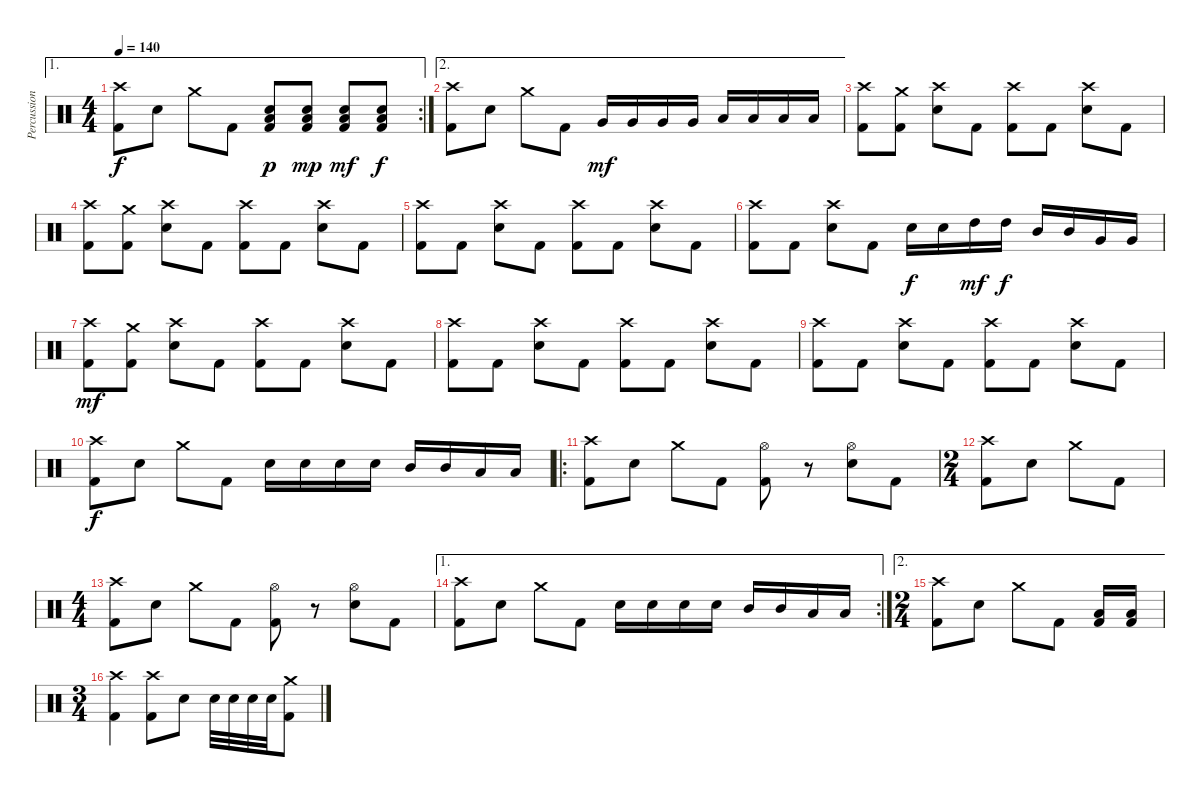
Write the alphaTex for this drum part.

\track ("Percussions" "Percussion") {instrument percussion}
\staff {score}
\articulation defaults
\ae 1
\rc 2
\ts (4 4)
\tempo 140
\clef neutral
\ks c
("Kick (hit) 2" "Crash high (hit)").8{dy f} "Electric Snare (hit)".8 "Crash medium (hit)".8 "Kick (hit) 2".8 ("Kick (hit) 2" "Electric Snare (hit)" "Low Floor Tom (hit)").8{dy p} ("Kick (hit) 2" "Electric Snare (hit)" "Low Floor Tom (hit)").8{dy mp} ("Kick (hit) 2" "Electric Snare (hit)" "Low Floor Tom (hit)").8{dy mf} ("Kick (hit) 2" "Electric Snare (hit)" "Low Floor Tom (hit)").8{dy f} |
\ae 2
("Kick (hit) 2" "Crash high (hit)").8 "Electric Snare (hit)".8 "Crash medium (hit)".8 "Kick (hit) 2".8 "Very Low Tom (hit)".16{dy mf} "Very Low Tom (hit)".16 "Very Low Tom (hit)".16 "Very Low Tom (hit)".16 "Low Floor Tom (hit)".16 "Low Floor Tom (hit)".16 "Low Floor Tom (hit)".16 "Low Floor Tom (hit)".16 |
("Kick (hit) 2" "Crash high (hit)").8 ("Kick (hit) 2" "Crash medium (hit)").8 ("Electric Snare (hit)" "Crash high (hit)").8 "Kick (hit) 2".8 ("Kick (hit) 2" "Crash high (hit)").8 "Kick (hit) 2".8 ("Electric Snare (hit)" "Crash high (hit)").8 "Kick (hit) 2".8 |
("Kick (hit) 2" "Crash high (hit)").8 ("Kick (hit) 2" "Crash medium (hit)").8 ("Electric Snare (hit)" "Crash high (hit)").8 "Kick (hit) 2".8 ("Kick (hit) 2" "Crash high (hit)").8 "Kick (hit) 2".8 ("Electric Snare (hit)" "Crash high (hit)").8 "Kick (hit) 2".8 |
("Kick (hit) 2" "Crash high (hit)").8 "Kick (hit) 2".8 ("Electric Snare (hit)" "Crash high (hit)").8 "Kick (hit) 2".8 ("Kick (hit) 2" "Crash high (hit)").8 "Kick (hit) 2".8 ("Electric Snare (hit)" "Crash high (hit)").8 "Kick (hit) 2".8 |
("Kick (hit) 2" "Crash high (hit)").8 "Kick (hit) 2".8 ("Electric Snare (hit)" "Crash high (hit)").8 "Kick (hit) 2".8 "Electric Snare (hit)".16{dy f} "Electric Snare (hit)".16 "High Tom (hit)".16{dy mf} "High Tom (hit)".16{dy f} "Mid Tom (hit)".16 "Mid Tom (hit)".16 "Very Low Tom (hit)".16 "Very Low Tom (hit)".16 |
("Kick (hit) 2" "Crash high (hit)").8{dy mf} ("Kick (hit) 2" "Crash medium (hit)").8 ("Electric Snare (hit)" "Crash high (hit)").8 "Kick (hit) 2".8 ("Kick (hit) 2" "Crash high (hit)").8 "Kick (hit) 2".8 ("Electric Snare (hit)" "Crash high (hit)").8 "Kick (hit) 2".8 |
("Kick (hit) 2" "Crash high (hit)").8 "Kick (hit) 2".8 ("Electric Snare (hit)" "Crash high (hit)").8 "Kick (hit) 2".8 ("Kick (hit) 2" "Crash high (hit)").8 "Kick (hit) 2".8 ("Electric Snare (hit)" "Crash high (hit)").8 "Kick (hit) 2".8 |
("Kick (hit) 2" "Crash high (hit)").8 "Kick (hit) 2".8 ("Electric Snare (hit)" "Crash high (hit)").8 "Kick (hit) 2".8 ("Kick (hit) 2" "Crash high (hit)").8 "Kick (hit) 2".8 ("Electric Snare (hit)" "Crash high (hit)").8 "Kick (hit) 2".8 |
("Kick (hit) 2" "Crash high (hit)").8{dy f} "Electric Snare (hit)".8 "Crash medium (hit)".8 "Kick (hit) 2".8 "Electric Snare (hit)".16 "Electric Snare (hit)".16 "Electric Snare (hit)".16 "Electric Snare (hit)".16 "Mid Tom (hit)".16 "Mid Tom (hit)".16 "Low Floor Tom (hit)".16 "Low Floor Tom (hit)".16 |
\ro
("Kick (hit) 2" "Crash high (hit)").8 "Electric Snare (hit)".8 "Crash medium (hit)".8 "Kick (hit) 2".8 ("Kick (hit) 2" "Hi-Hat (open)").8 r.8 ("Electric Snare (hit)" "Hi-Hat (open)").8 "Kick (hit) 2".8 |
\ts (2 4)
("Kick (hit) 2" "Crash high (hit)").8 "Electric Snare (hit)".8 "Crash medium (hit)".8 "Kick (hit) 2".8 |
\ts (4 4)
("Kick (hit) 2" "Crash high (hit)").8 "Electric Snare (hit)".8 "Crash medium (hit)".8 "Kick (hit) 2".8 ("Kick (hit) 2" "Hi-Hat (open)").8 r.8 ("Electric Snare (hit)" "Hi-Hat (open)").8 "Kick (hit) 2".8 |
\ae 1
\rc 2
("Kick (hit) 2" "Crash high (hit)").8 "Electric Snare (hit)".8 "Crash medium (hit)".8 "Kick (hit) 2".8 "Electric Snare (hit)".16 "Electric Snare (hit)".16 "Electric Snare (hit)".16 "Electric Snare (hit)".16 "Mid Tom (hit)".16 "Mid Tom (hit)".16 "Low Floor Tom (hit)".16 "Low Floor Tom (hit)".16 |
\ae 2
\ts (2 4)
("Kick (hit) 2" "Crash high (hit)").8 "Electric Snare (hit)".8 "Crash medium (hit)".8 "Kick (hit) 2".8 ("Kick (hit) 2" "Low Floor Tom (hit)").16 ("Kick (hit) 2" "Low Floor Tom (hit)").16 |
\ts (3 4)
("Kick (hit) 2" "Crash high (hit)").4 ("Kick (hit) 2" "Crash high (hit)").8 "Electric Snare (hit)".8 "Electric Snare (hit)".32 "Electric Snare (hit)".32 "Electric Snare (hit)".32 "Electric Snare (hit)".32 ("Kick (hit) 2" "Crash medium (hit)").8
